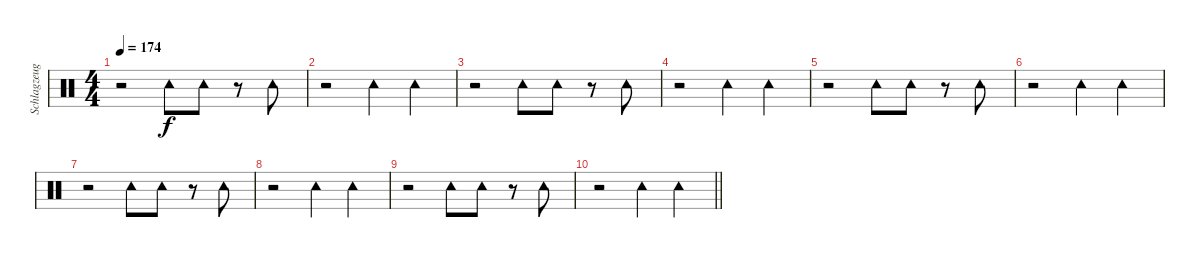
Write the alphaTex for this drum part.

\track ("Schlagzeug" "Schlagzeug") {instrument percussion}
\staff {score}
\articulation defaults
\ts (4 4)
\tempo 174
\clef neutral
\ks c
r.2{dy f} "Tambourine (hit)".8 "Tambourine (hit)".8 r.8 "Tambourine (hit)".8 |
r.2 "Tambourine (hit)".4 "Tambourine (hit)".4 |
r.2 "Tambourine (hit)".8 "Tambourine (hit)".8 r.8 "Tambourine (hit)".8 |
r.2 "Tambourine (hit)".4 "Tambourine (hit)".4 |
r.2 "Tambourine (hit)".8 "Tambourine (hit)".8 r.8 "Tambourine (hit)".8 |
r.2 "Tambourine (hit)".4 "Tambourine (hit)".4 |
r.2 "Tambourine (hit)".8 "Tambourine (hit)".8 r.8 "Tambourine (hit)".8 |
r.2 "Tambourine (hit)".4 "Tambourine (hit)".4 |
r.2 "Tambourine (hit)".8 "Tambourine (hit)".8 r.8 "Tambourine (hit)".8 |
\barLineRight lightlight
r.2 "Tambourine (hit)".4 "Tambourine (hit)".4
